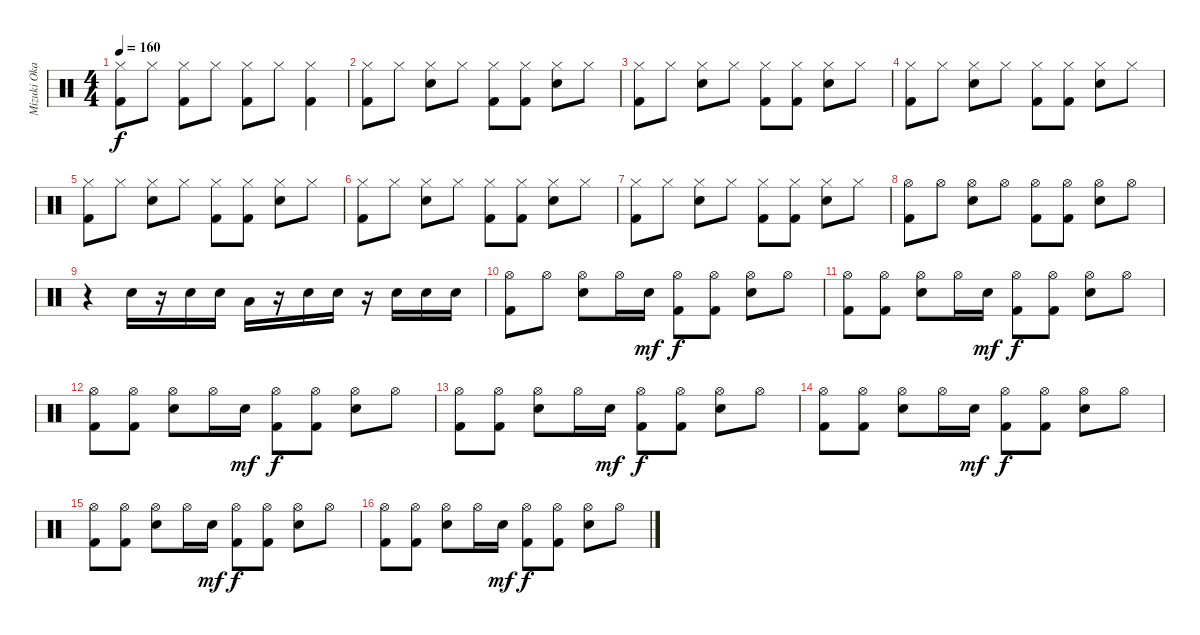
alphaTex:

\track ("Mizuki Okajima (Drums)" "Mizuki Oka") {instrument percussion}
\staff {score}
\articulation defaults
\ts (4 4)
\tempo 160
\clef neutral
\ks c
("Hi-Hat (closed)" "Kick (hit) 2").8{dy f} "Hi-Hat (closed)".8 ("Hi-Hat (closed)" "Kick (hit) 2").8 "Hi-Hat (closed)".8 ("Hi-Hat (closed)" "Kick (hit) 2").8 "Hi-Hat (closed)".8 ("Hi-Hat (closed)" "Kick (hit) 2").4 |
("Hi-Hat (closed)" "Kick (hit) 2").8 "Hi-Hat (closed)".8 ("Hi-Hat (closed)" "Snare (hit) 2").8 "Hi-Hat (closed)".8 ("Hi-Hat (closed)" "Kick (hit) 2").8 ("Hi-Hat (closed)" "Kick (hit) 2").8 ("Hi-Hat (closed)" "Snare (hit) 2").8 "Hi-Hat (closed)".8 |
("Hi-Hat (closed)" "Kick (hit) 2").8 "Hi-Hat (closed)".8 ("Hi-Hat (closed)" "Snare (hit) 2").8 "Hi-Hat (closed)".8 ("Hi-Hat (closed)" "Kick (hit) 2").8 ("Hi-Hat (closed)" "Kick (hit) 2").8 ("Hi-Hat (closed)" "Snare (hit) 2").8 "Hi-Hat (closed)".8 |
("Hi-Hat (closed)" "Kick (hit) 2").8 "Hi-Hat (closed)".8 ("Hi-Hat (closed)" "Snare (hit) 2").8 "Hi-Hat (closed)".8 ("Hi-Hat (closed)" "Kick (hit) 2").8 ("Hi-Hat (closed)" "Kick (hit) 2").8 ("Hi-Hat (closed)" "Snare (hit) 2").8 "Hi-Hat (closed)".8 |
("Hi-Hat (closed)" "Kick (hit) 2").8 "Hi-Hat (closed)".8 ("Hi-Hat (closed)" "Snare (hit) 2").8 "Hi-Hat (closed)".8 ("Hi-Hat (closed)" "Kick (hit) 2").8 ("Hi-Hat (closed)" "Kick (hit) 2").8 ("Hi-Hat (closed)" "Snare (hit) 2").8 "Hi-Hat (closed)".8 |
("Hi-Hat (closed)" "Kick (hit) 2").8 "Hi-Hat (closed)".8 ("Hi-Hat (closed)" "Snare (hit) 2").8 "Hi-Hat (closed)".8 ("Hi-Hat (closed)" "Kick (hit) 2").8 ("Hi-Hat (closed)" "Kick (hit) 2").8 ("Hi-Hat (closed)" "Snare (hit) 2").8 "Hi-Hat (closed)".8 |
("Hi-Hat (closed)" "Kick (hit) 2").8 "Hi-Hat (closed)".8 ("Hi-Hat (closed)" "Snare (hit) 2").8 "Hi-Hat (closed)".8 ("Hi-Hat (closed)" "Kick (hit) 2").8 ("Hi-Hat (closed)" "Kick (hit) 2").8 ("Hi-Hat (closed)" "Snare (hit) 2").8 "Hi-Hat (closed)".8 |
("Hi-Hat (open)" "Kick (hit) 2").8 "Hi-Hat (open)".8 ("Hi-Hat (open)" "Snare (hit) 2").8 "Hi-Hat (open)".8 ("Hi-Hat (open)" "Kick (hit) 2").8 ("Hi-Hat (open)" "Kick (hit) 2").8 ("Hi-Hat (open)" "Snare (hit) 2").8 "Hi-Hat (open)".8 |
r.4 "Snare (hit) 2".16 r.16 "Snare (hit) 2".16 "Snare (hit) 2".16 "Low Tom (hit)".16 r.16 "Snare (hit) 2".16 "Snare (hit) 2".16 r.16 "Snare (hit) 2".16 "Snare (hit) 2".16 "Snare (hit) 2".16 |
("Hi-Hat (open)" "Kick (hit) 2").8 "Hi-Hat (open)".8 ("Hi-Hat (open)" "Snare (hit) 2").8 "Hi-Hat (open)".16 "Snare (hit) 2".16{dy mf} ("Hi-Hat (open)" "Kick (hit) 2").8{dy f} ("Hi-Hat (open)" "Kick (hit) 2").8 ("Hi-Hat (open)" "Snare (hit) 2").8 "Hi-Hat (open)".8 |
("Hi-Hat (open)" "Kick (hit) 2").8 ("Hi-Hat (open)" "Kick (hit) 2").8 ("Hi-Hat (open)" "Snare (hit) 2").8 "Hi-Hat (open)".16 "Snare (hit) 2".16{dy mf} ("Hi-Hat (open)" "Kick (hit) 2").8{dy f} ("Hi-Hat (open)" "Kick (hit) 2").8 ("Hi-Hat (open)" "Snare (hit) 2").8 "Hi-Hat (open)".8 |
("Hi-Hat (open)" "Kick (hit) 2").8 ("Hi-Hat (open)" "Kick (hit) 2").8 ("Hi-Hat (open)" "Snare (hit) 2").8 "Hi-Hat (open)".16 "Snare (hit) 2".16{dy mf} ("Hi-Hat (open)" "Kick (hit) 2").8{dy f} ("Hi-Hat (open)" "Kick (hit) 2").8 ("Hi-Hat (open)" "Snare (hit) 2").8 "Hi-Hat (open)".8 |
("Hi-Hat (open)" "Kick (hit) 2").8 ("Hi-Hat (open)" "Kick (hit) 2").8 ("Hi-Hat (open)" "Snare (hit) 2").8 "Hi-Hat (open)".16 "Snare (hit) 2".16{dy mf} ("Hi-Hat (open)" "Kick (hit) 2").8{dy f} ("Hi-Hat (open)" "Kick (hit) 2").8 ("Hi-Hat (open)" "Snare (hit) 2").8 "Hi-Hat (open)".8 |
("Hi-Hat (open)" "Kick (hit) 2").8 ("Hi-Hat (open)" "Kick (hit) 2").8 ("Hi-Hat (open)" "Snare (hit) 2").8 "Hi-Hat (open)".16 "Snare (hit) 2".16{dy mf} ("Hi-Hat (open)" "Kick (hit) 2").8{dy f} ("Hi-Hat (open)" "Kick (hit) 2").8 ("Hi-Hat (open)" "Snare (hit) 2").8 "Hi-Hat (open)".8 |
("Hi-Hat (open)" "Kick (hit) 2").8 ("Hi-Hat (open)" "Kick (hit) 2").8 ("Hi-Hat (open)" "Snare (hit) 2").8 "Hi-Hat (open)".16 "Snare (hit) 2".16{dy mf} ("Hi-Hat (open)" "Kick (hit) 2").8{dy f} ("Hi-Hat (open)" "Kick (hit) 2").8 ("Hi-Hat (open)" "Snare (hit) 2").8 "Hi-Hat (open)".8 |
("Hi-Hat (open)" "Kick (hit) 2").8 ("Hi-Hat (open)" "Kick (hit) 2").8 ("Hi-Hat (open)" "Snare (hit) 2").8 "Hi-Hat (open)".16 "Snare (hit) 2".16{dy mf} ("Hi-Hat (open)" "Kick (hit) 2").8{dy f} ("Hi-Hat (open)" "Kick (hit) 2").8 ("Hi-Hat (open)" "Snare (hit) 2").8 "Hi-Hat (open)".8
